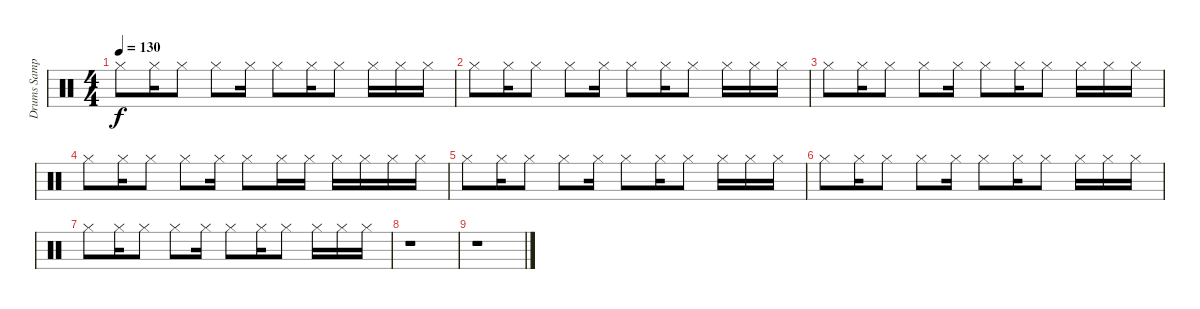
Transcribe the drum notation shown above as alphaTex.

\track ("Drums Sample" "Drums Samp") {instrument percussion}
\staff {score}
\articulation defaults
\ts (4 4)
\tempo 130
\clef neutral
\ks c "Hi-Hat (closed)".8{dy f} "Hi-Hat (closed)".16 "Hi-Hat (closed)".8 "Hi-Hat (closed)".8 "Hi-Hat (closed)".16 "Hi-Hat (closed)".8 "Hi-Hat (closed)".16 "Hi-Hat (closed)".8 "Hi-Hat (closed)".16 "Hi-Hat (closed)".16 "Hi-Hat (closed)".16
|
"Hi-Hat (closed)".8 "Hi-Hat (closed)".16 "Hi-Hat (closed)".8 "Hi-Hat (closed)".8 "Hi-Hat (closed)".16 "Hi-Hat (closed)".8 "Hi-Hat (closed)".16 "Hi-Hat (closed)".8 "Hi-Hat (closed)".16 "Hi-Hat (closed)".16 "Hi-Hat (closed)".16 |
"Hi-Hat (closed)".8 "Hi-Hat (closed)".16 "Hi-Hat (closed)".8 "Hi-Hat (closed)".8 "Hi-Hat (closed)".16 "Hi-Hat (closed)".8 "Hi-Hat (closed)".16 "Hi-Hat (closed)".8 "Hi-Hat (closed)".16 "Hi-Hat (closed)".16 "Hi-Hat (closed)".16 |
"Hi-Hat (closed)".8 "Hi-Hat (closed)".16 "Hi-Hat (closed)".8 "Hi-Hat (closed)".8 "Hi-Hat (closed)".16 "Hi-Hat (closed)".8 "Hi-Hat (closed)".16 "Hi-Hat (closed)".16 "Hi-Hat (closed)".16 "Hi-Hat (closed)".16 "Hi-Hat (closed)".16 "Hi-Hat (closed)".16 |
"Hi-Hat (closed)".8 "Hi-Hat (closed)".16 "Hi-Hat (closed)".8 "Hi-Hat (closed)".8 "Hi-Hat (closed)".16 "Hi-Hat (closed)".8 "Hi-Hat (closed)".16 "Hi-Hat (closed)".8 "Hi-Hat (closed)".16 "Hi-Hat (closed)".16 "Hi-Hat (closed)".16 |
"Hi-Hat (closed)".8 "Hi-Hat (closed)".16 "Hi-Hat (closed)".8 "Hi-Hat (closed)".8 "Hi-Hat (closed)".16 "Hi-Hat (closed)".8 "Hi-Hat (closed)".16 "Hi-Hat (closed)".8 "Hi-Hat (closed)".16 "Hi-Hat (closed)".16 "Hi-Hat (closed)".16 |
"Hi-Hat (closed)".8 "Hi-Hat (closed)".16 "Hi-Hat (closed)".8 "Hi-Hat (closed)".8 "Hi-Hat (closed)".16 "Hi-Hat (closed)".8 "Hi-Hat (closed)".16 "Hi-Hat (closed)".8 "Hi-Hat (closed)".16 "Hi-Hat (closed)".16 "Hi-Hat (closed)".16 |
r.1 |
r.1
